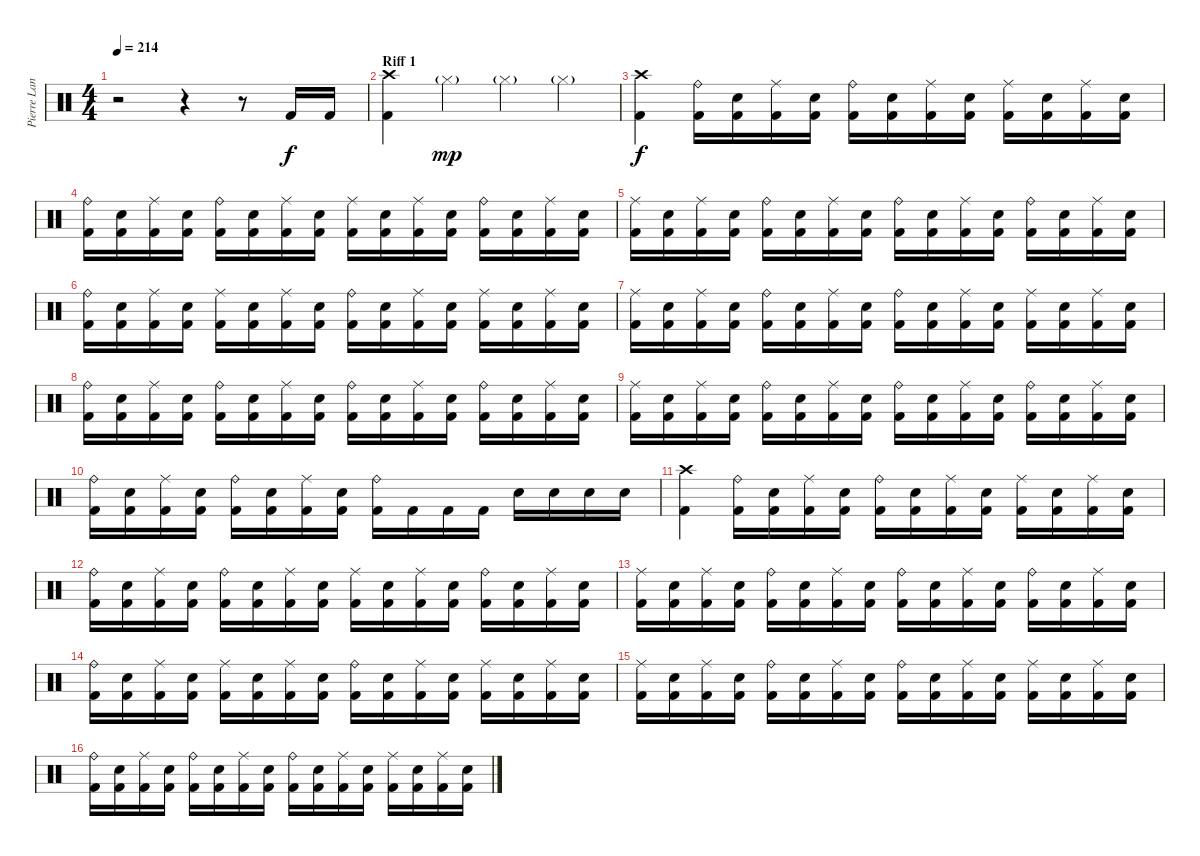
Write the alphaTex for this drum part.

\track ("Pierre Langlois (Drums)" "Pierre Lan") {instrument percussion}
\staff {score}
\articulation defaults
\ts (4 4)
\tempo 214
\clef neutral
\ks c
r.2{dy f} r.4 r.8 "Kick (hit) 2".16 "Kick (hit) 2".16 |
\section ("" "Riff 1")
("Crash high (hit)" "Kick (hit) 2").4 "Hi-Hat (closed)"{g}.4{dy mp} "Hi-Hat (closed)"{g}.4 "Hi-Hat (closed)"{g}.4 |
("Crash high (hit)" "Kick (hit) 2").4{dy f} ("Ride (bell)" "Kick (hit) 2").16 ("Snare (hit) 2" "Kick (hit) 2").16 ("Ride (middle)" "Kick (hit) 2").16 ("Snare (hit) 2" "Kick (hit) 2").16 ("Ride (bell)" "Kick (hit) 2").16 ("Snare (hit) 2" "Kick (hit) 2").16 ("Ride (middle)" "Kick (hit) 2").16 ("Snare (hit) 2" "Kick (hit) 2").16 ("Ride (middle)" "Kick (hit) 2").16 ("Snare (hit) 2" "Kick (hit) 2").16 ("Ride (middle)" "Kick (hit) 2").16 ("Snare (hit) 2" "Kick (hit) 2").16 |
("Ride (bell)" "Kick (hit) 2").16 ("Snare (hit) 2" "Kick (hit) 2").16 ("Ride (middle)" "Kick (hit) 2").16 ("Snare (hit) 2" "Kick (hit) 2").16 ("Ride (bell)" "Kick (hit) 2").16 ("Snare (hit) 2" "Kick (hit) 2").16 ("Ride (middle)" "Kick (hit) 2").16 ("Snare (hit) 2" "Kick (hit) 2").16 ("Ride (middle)" "Kick (hit) 2").16 ("Snare (hit) 2" "Kick (hit) 2").16 ("Ride (middle)" "Kick (hit) 2").16 ("Snare (hit) 2" "Kick (hit) 2").16 ("Ride (bell)" "Kick (hit) 2").16 ("Snare (hit) 2" "Kick (hit) 2").16 ("Ride (middle)" "Kick (hit) 2").16 ("Snare (hit) 2" "Kick (hit) 2").16 |
("Ride (middle)" "Kick (hit) 2").16 ("Snare (hit) 2" "Kick (hit) 2").16 ("Ride (middle)" "Kick (hit) 2").16 ("Snare (hit) 2" "Kick (hit) 2").16 ("Ride (bell)" "Kick (hit) 2").16 ("Snare (hit) 2" "Kick (hit) 2").16 ("Ride (middle)" "Kick (hit) 2").16 ("Snare (hit) 2" "Kick (hit) 2").16 ("Ride (bell)" "Kick (hit) 2").16 ("Snare (hit) 2" "Kick (hit) 2").16 ("Ride (middle)" "Kick (hit) 2").16 ("Snare (hit) 2" "Kick (hit) 2").16 ("Ride (bell)" "Kick (hit) 2").16 ("Snare (hit) 2" "Kick (hit) 2").16 ("Ride (middle)" "Kick (hit) 2").16 ("Snare (hit) 2" "Kick (hit) 2").16 |
("Ride (bell)" "Kick (hit) 2").16 ("Snare (hit) 2" "Kick (hit) 2").16 ("Ride (middle)" "Kick (hit) 2").16 ("Snare (hit) 2" "Kick (hit) 2").16 ("Ride (middle)" "Kick (hit) 2").16 ("Snare (hit) 2" "Kick (hit) 2").16 ("Ride (middle)" "Kick (hit) 2").16 ("Snare (hit) 2" "Kick (hit) 2").16 ("Ride (bell)" "Kick (hit) 2").16 ("Snare (hit) 2" "Kick (hit) 2").16 ("Ride (middle)" "Kick (hit) 2").16 ("Snare (hit) 2" "Kick (hit) 2").16 ("Ride (middle)" "Kick (hit) 2").16 ("Snare (hit) 2" "Kick (hit) 2").16 ("Ride (middle)" "Kick (hit) 2").16 ("Snare (hit) 2" "Kick (hit) 2").16 |
("Ride (middle)" "Kick (hit) 2").16 ("Snare (hit) 2" "Kick (hit) 2").16 ("Ride (middle)" "Kick (hit) 2").16 ("Snare (hit) 2" "Kick (hit) 2").16 ("Ride (bell)" "Kick (hit) 2").16 ("Snare (hit) 2" "Kick (hit) 2").16 ("Ride (middle)" "Kick (hit) 2").16 ("Snare (hit) 2" "Kick (hit) 2").16 ("Ride (bell)" "Kick (hit) 2").16 ("Snare (hit) 2" "Kick (hit) 2").16 ("Ride (middle)" "Kick (hit) 2").16 ("Snare (hit) 2" "Kick (hit) 2").16 ("Ride (middle)" "Kick (hit) 2").16 ("Snare (hit) 2" "Kick (hit) 2").16 ("Ride (middle)" "Kick (hit) 2").16 ("Snare (hit) 2" "Kick (hit) 2").16 |
("Ride (bell)" "Kick (hit) 2").16 ("Snare (hit) 2" "Kick (hit) 2").16 ("Ride (middle)" "Kick (hit) 2").16 ("Snare (hit) 2" "Kick (hit) 2").16 ("Ride (bell)" "Kick (hit) 2").16 ("Snare (hit) 2" "Kick (hit) 2").16 ("Ride (middle)" "Kick (hit) 2").16 ("Snare (hit) 2" "Kick (hit) 2").16 ("Ride (bell)" "Kick (hit) 2").16 ("Snare (hit) 2" "Kick (hit) 2").16 ("Ride (middle)" "Kick (hit) 2").16 ("Snare (hit) 2" "Kick (hit) 2").16 ("Ride (bell)" "Kick (hit) 2").16 ("Snare (hit) 2" "Kick (hit) 2").16 ("Ride (middle)" "Kick (hit) 2").16 ("Snare (hit) 2" "Kick (hit) 2").16 |
("Ride (middle)" "Kick (hit) 2").16 ("Snare (hit) 2" "Kick (hit) 2").16 ("Ride (middle)" "Kick (hit) 2").16 ("Snare (hit) 2" "Kick (hit) 2").16 ("Ride (bell)" "Kick (hit) 2").16 ("Snare (hit) 2" "Kick (hit) 2").16 ("Ride (middle)" "Kick (hit) 2").16 ("Snare (hit) 2" "Kick (hit) 2").16 ("Ride (bell)" "Kick (hit) 2").16 ("Snare (hit) 2" "Kick (hit) 2").16 ("Ride (middle)" "Kick (hit) 2").16 ("Snare (hit) 2" "Kick (hit) 2").16 ("Ride (bell)" "Kick (hit) 2").16 ("Snare (hit) 2" "Kick (hit) 2").16 ("Ride (middle)" "Kick (hit) 2").16 ("Snare (hit) 2" "Kick (hit) 2").16 |
("Ride (bell)" "Kick (hit) 2").16 ("Snare (hit) 2" "Kick (hit) 2").16 ("Ride (middle)" "Kick (hit) 2").16 ("Snare (hit) 2" "Kick (hit) 2").16 ("Ride (bell)" "Kick (hit) 2").16 ("Snare (hit) 2" "Kick (hit) 2").16 ("Ride (middle)" "Kick (hit) 2").16 ("Snare (hit) 2" "Kick (hit) 2").16 ("Ride (bell)" "Kick (hit) 2").16 "Kick (hit) 2".16 "Kick (hit) 2".16 "Kick (hit) 2".16 "Snare (hit) 2".16 "Snare (hit) 2".16 "Snare (hit) 2".16 "Snare (hit) 2".16 |
("Crash high (hit)" "Kick (hit) 2").4 ("Ride (bell)" "Kick (hit) 2").16 ("Snare (hit) 2" "Kick (hit) 2").16 ("Ride (middle)" "Kick (hit) 2").16 ("Snare (hit) 2" "Kick (hit) 2").16 ("Ride (bell)" "Kick (hit) 2").16 ("Snare (hit) 2" "Kick (hit) 2").16 ("Ride (middle)" "Kick (hit) 2").16 ("Snare (hit) 2" "Kick (hit) 2").16 ("Ride (middle)" "Kick (hit) 2").16 ("Snare (hit) 2" "Kick (hit) 2").16 ("Ride (middle)" "Kick (hit) 2").16 ("Snare (hit) 2" "Kick (hit) 2").16 |
("Ride (bell)" "Kick (hit) 2").16 ("Snare (hit) 2" "Kick (hit) 2").16 ("Ride (middle)" "Kick (hit) 2").16 ("Snare (hit) 2" "Kick (hit) 2").16 ("Ride (bell)" "Kick (hit) 2").16 ("Snare (hit) 2" "Kick (hit) 2").16 ("Ride (middle)" "Kick (hit) 2").16 ("Snare (hit) 2" "Kick (hit) 2").16 ("Ride (middle)" "Kick (hit) 2").16 ("Snare (hit) 2" "Kick (hit) 2").16 ("Ride (middle)" "Kick (hit) 2").16 ("Snare (hit) 2" "Kick (hit) 2").16 ("Ride (bell)" "Kick (hit) 2").16 ("Snare (hit) 2" "Kick (hit) 2").16 ("Ride (middle)" "Kick (hit) 2").16 ("Snare (hit) 2" "Kick (hit) 2").16 |
("Ride (middle)" "Kick (hit) 2").16 ("Snare (hit) 2" "Kick (hit) 2").16 ("Ride (middle)" "Kick (hit) 2").16 ("Snare (hit) 2" "Kick (hit) 2").16 ("Ride (bell)" "Kick (hit) 2").16 ("Snare (hit) 2" "Kick (hit) 2").16 ("Ride (middle)" "Kick (hit) 2").16 ("Snare (hit) 2" "Kick (hit) 2").16 ("Ride (bell)" "Kick (hit) 2").16 ("Snare (hit) 2" "Kick (hit) 2").16 ("Ride (middle)" "Kick (hit) 2").16 ("Snare (hit) 2" "Kick (hit) 2").16 ("Ride (bell)" "Kick (hit) 2").16 ("Snare (hit) 2" "Kick (hit) 2").16 ("Ride (middle)" "Kick (hit) 2").16 ("Snare (hit) 2" "Kick (hit) 2").16 |
("Ride (bell)" "Kick (hit) 2").16 ("Snare (hit) 2" "Kick (hit) 2").16 ("Ride (middle)" "Kick (hit) 2").16 ("Snare (hit) 2" "Kick (hit) 2").16 ("Ride (middle)" "Kick (hit) 2").16 ("Snare (hit) 2" "Kick (hit) 2").16 ("Ride (middle)" "Kick (hit) 2").16 ("Snare (hit) 2" "Kick (hit) 2").16 ("Ride (bell)" "Kick (hit) 2").16 ("Snare (hit) 2" "Kick (hit) 2").16 ("Ride (middle)" "Kick (hit) 2").16 ("Snare (hit) 2" "Kick (hit) 2").16 ("Ride (middle)" "Kick (hit) 2").16 ("Snare (hit) 2" "Kick (hit) 2").16 ("Ride (middle)" "Kick (hit) 2").16 ("Snare (hit) 2" "Kick (hit) 2").16 |
("Ride (middle)" "Kick (hit) 2").16 ("Snare (hit) 2" "Kick (hit) 2").16 ("Ride (middle)" "Kick (hit) 2").16 ("Snare (hit) 2" "Kick (hit) 2").16 ("Ride (bell)" "Kick (hit) 2").16 ("Snare (hit) 2" "Kick (hit) 2").16 ("Ride (middle)" "Kick (hit) 2").16 ("Snare (hit) 2" "Kick (hit) 2").16 ("Ride (bell)" "Kick (hit) 2").16 ("Snare (hit) 2" "Kick (hit) 2").16 ("Ride (middle)" "Kick (hit) 2").16 ("Snare (hit) 2" "Kick (hit) 2").16 ("Ride (middle)" "Kick (hit) 2").16 ("Snare (hit) 2" "Kick (hit) 2").16 ("Ride (middle)" "Kick (hit) 2").16 ("Snare (hit) 2" "Kick (hit) 2").16 |
("Ride (bell)" "Kick (hit) 2").16 ("Snare (hit) 2" "Kick (hit) 2").16 ("Ride (middle)" "Kick (hit) 2").16 ("Snare (hit) 2" "Kick (hit) 2").16 ("Ride (bell)" "Kick (hit) 2").16 ("Snare (hit) 2" "Kick (hit) 2").16 ("Ride (middle)" "Kick (hit) 2").16 ("Snare (hit) 2" "Kick (hit) 2").16 ("Ride (bell)" "Kick (hit) 2").16 ("Snare (hit) 2" "Kick (hit) 2").16 ("Ride (middle)" "Kick (hit) 2").16 ("Snare (hit) 2" "Kick (hit) 2").16 ("Ride (middle)" "Kick (hit) 2").16 ("Snare (hit) 2" "Kick (hit) 2").16 ("Ride (middle)" "Kick (hit) 2").16 ("Snare (hit) 2" "Kick (hit) 2").16
